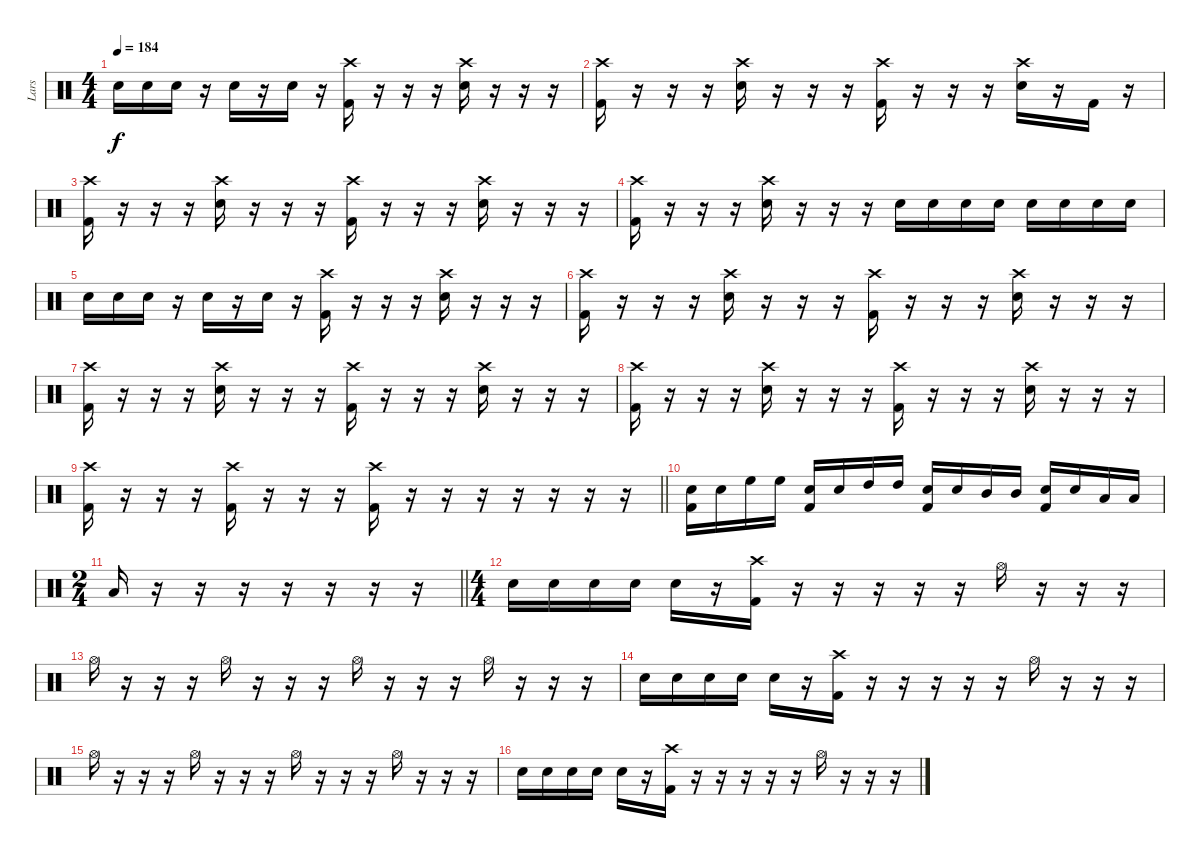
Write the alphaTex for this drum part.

\track ("Lars" "Lars") {instrument percussion}
\staff {score}
\articulation defaults
\ts (4 4)
\tempo 184
\clef neutral
\ks c "Electric Snare (hit)".16{dy f} "Electric Snare (hit)".16 "Electric Snare (hit)".16
r.16 "Electric Snare (hit)".16 r.16 "Electric Snare (hit)".16 r.16 ("Crash high (hit)" "Kick (hit) 2").16 r.16 r.16 r.16 ("Crash high (hit)" "Electric Snare (hit)").16 r.16 r.16 r.16 |
("Crash high (hit)" "Kick (hit) 2").16 r.16 r.16 r.16 ("Crash high (hit)" "Electric Snare (hit)").16 r.16 r.16 r.16 ("Crash high (hit)" "Kick (hit) 2").16 r.16 r.16 r.16 ("Crash high (hit)" "Electric Snare (hit)").16 r.16 "Kick (hit) 2".16 r.16 |
("Crash high (hit)" "Kick (hit) 2").16 r.16 r.16 r.16 ("Crash high (hit)" "Electric Snare (hit)").16 r.16 r.16 r.16 ("Crash high (hit)" "Kick (hit) 2").16 r.16 r.16 r.16 ("Crash high (hit)" "Electric Snare (hit)").16 r.16 r.16 r.16 |
("Crash high (hit)" "Kick (hit) 2").16 r.16 r.16 r.16 ("Crash high (hit)" "Electric Snare (hit)").16 r.16 r.16 r.16 "Electric Snare (hit)".16 "Electric Snare (hit)".16 "Electric Snare (hit)".16 "Electric Snare (hit)".16 "Electric Snare (hit)".16 "Electric Snare (hit)".16 "Electric Snare (hit)".16 "Electric Snare (hit)".16 |
"Electric Snare (hit)".16 "Electric Snare (hit)".16 "Electric Snare (hit)".16 r.16 "Electric Snare (hit)".16 r.16 "Electric Snare (hit)".16 r.16 ("Crash high (hit)" "Kick (hit) 2").16 r.16 r.16 r.16 ("Crash high (hit)" "Electric Snare (hit)").16 r.16 r.16 r.16 |
("Crash high (hit)" "Kick (hit) 2").16 r.16 r.16 r.16 ("Crash high (hit)" "Electric Snare (hit)").16 r.16 r.16 r.16 ("Crash high (hit)" "Kick (hit) 2").16 r.16 r.16 r.16 ("Crash high (hit)" "Electric Snare (hit)").16 r.16 r.16 r.16 |
("Crash high (hit)" "Kick (hit) 2").16 r.16 r.16 r.16 ("Crash high (hit)" "Electric Snare (hit)").16 r.16 r.16 r.16 ("Crash high (hit)" "Kick (hit) 2").16 r.16 r.16 r.16 ("Crash high (hit)" "Electric Snare (hit)").16 r.16 r.16 r.16 |
("Crash high (hit)" "Kick (hit) 2").16 r.16 r.16 r.16 ("Crash high (hit)" "Electric Snare (hit)").16 r.16 r.16 r.16 ("Crash high (hit)" "Kick (hit) 2").16 r.16 r.16 r.16 ("Crash high (hit)" "Electric Snare (hit)").16 r.16 r.16 r.16 |
\barLineRight lightlight
("Crash high (hit)" "Kick (hit) 2").16 r.16 r.16 r.16{volume 0} ("Crash high (hit)" "Kick (hit) 2").16{volume 10} r.16 r.16 r.16{volume 0} ("Crash high (hit)" "Kick (hit) 2").16{volume 10} r.16 r.16 r.16{volume 0} r.16 r.16 r.16 r.16 |
("Electric Snare (hit)" "Kick (hit) 2").16{volume 10} "Electric Snare (hit)".16 "High Floor Tom (hit)".16 "High Floor Tom (hit)".16 ("Electric Snare (hit)" "Kick (hit) 2").16 "Electric Snare (hit)".16 "High Tom (hit)".16 "High Tom (hit)".16 ("Electric Snare (hit)" "Kick (hit) 2").16 "Electric Snare (hit)".16 "Mid Tom (hit)".16 "Mid Tom (hit)".16 ("Electric Snare (hit)" "Kick (hit) 2").16 "Electric Snare (hit)".16 "Low Tom (hit)".16 "Low Tom (hit)".16 |
\ts (2 4)
\barLineRight lightlight "Low Tom (hit)".16
r.16 r.16 r.16 r.16 r.16 r.16 r.16 |
\ts (4 4)
"Electric Snare (hit)".16 "Electric Snare (hit)".16 "Electric Snare (hit)".16 "Electric Snare (hit)".16 "Electric Snare (hit)".16 r.16 ("Crash high (hit)" "Kick (hit) 2").16 r.16 r.16 r.16 r.16 r.16 "Hi-Hat (open)".16 r.16 r.16 r.16 |
"Hi-Hat (open)".16 r.16 r.16 r.16 "Hi-Hat (open)".16 r.16 r.16 r.16 "Hi-Hat (open)".16 r.16 r.16 r.16 "Hi-Hat (open)".16 r.16 r.16 r.16 |
"Electric Snare (hit)".16 "Electric Snare (hit)".16 "Electric Snare (hit)".16 "Electric Snare (hit)".16 "Electric Snare (hit)".16 r.16 ("Crash high (hit)" "Kick (hit) 2").16 r.16 r.16 r.16 r.16 r.16 "Hi-Hat (open)".16 r.16 r.16 r.16 |
"Hi-Hat (open)".16 r.16 r.16 r.16 "Hi-Hat (open)".16 r.16 r.16 r.16 "Hi-Hat (open)".16 r.16 r.16 r.16 "Hi-Hat (open)".16 r.16 r.16 r.16 |
"Electric Snare (hit)".16 "Electric Snare (hit)".16 "Electric Snare (hit)".16 "Electric Snare (hit)".16 "Electric Snare (hit)".16 r.16 ("Crash high (hit)" "Kick (hit) 2").16 r.16 r.16 r.16 r.16 r.16 "Hi-Hat (open)".16 r.16 r.16 r.16
